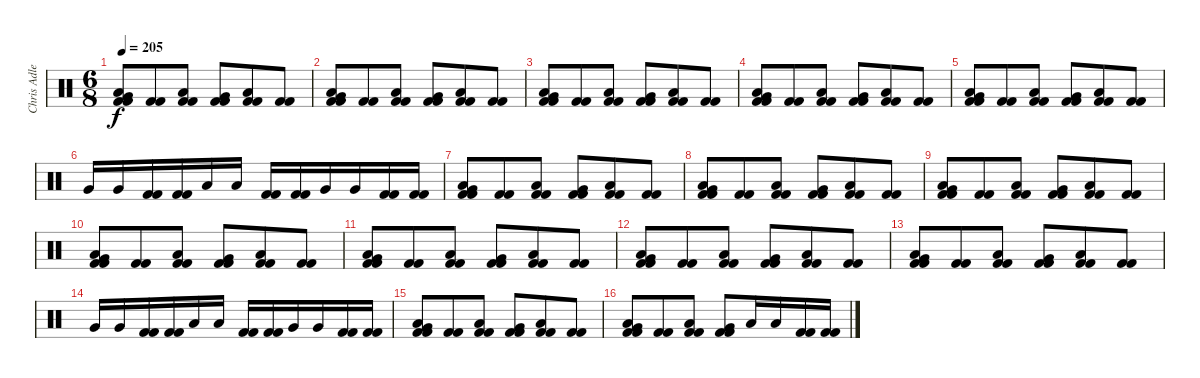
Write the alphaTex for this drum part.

\track ("Chris Adler" "Chris Adle") {instrument percussion}
\staff {score}
\articulation defaults
\ts (6 8)
\tempo 205
\clef neutral
\ks c
("Very Low Tom (hit)" "Low Floor Tom (hit)" "Kick (hit) 2" "Kick (hit) 2").8{dy f} ("Kick (hit) 2" "Kick (hit) 2").8 ("Low Floor Tom (hit)" "Kick (hit) 2" "Kick (hit) 2").8 ("Very Low Tom (hit)" "Kick (hit) 2" "Kick (hit) 2").8 ("Low Floor Tom (hit)" "Kick (hit) 2" "Kick (hit) 2").8 ("Kick (hit) 2" "Kick (hit) 2").8 |
("Very Low Tom (hit)" "Low Floor Tom (hit)" "Kick (hit) 2" "Kick (hit) 2").8 ("Kick (hit) 2" "Kick (hit) 2").8 ("Low Floor Tom (hit)" "Kick (hit) 2" "Kick (hit) 2").8 ("Very Low Tom (hit)" "Kick (hit) 2" "Kick (hit) 2").8 ("Low Floor Tom (hit)" "Kick (hit) 2" "Kick (hit) 2").8 ("Kick (hit) 2" "Kick (hit) 2").8 |
("Very Low Tom (hit)" "Low Floor Tom (hit)" "Kick (hit) 2" "Kick (hit) 2").8 ("Kick (hit) 2" "Kick (hit) 2").8 ("Low Floor Tom (hit)" "Kick (hit) 2" "Kick (hit) 2").8 ("Very Low Tom (hit)" "Kick (hit) 2" "Kick (hit) 2").8 ("Low Floor Tom (hit)" "Kick (hit) 2" "Kick (hit) 2").8 ("Kick (hit) 2" "Kick (hit) 2").8 |
("Very Low Tom (hit)" "Low Floor Tom (hit)" "Kick (hit) 2" "Kick (hit) 2").8 ("Kick (hit) 2" "Kick (hit) 2").8 ("Low Floor Tom (hit)" "Kick (hit) 2" "Kick (hit) 2").8 ("Very Low Tom (hit)" "Kick (hit) 2" "Kick (hit) 2").8 ("Low Floor Tom (hit)" "Kick (hit) 2" "Kick (hit) 2").8 ("Kick (hit) 2" "Kick (hit) 2").8 |
("Very Low Tom (hit)" "Low Floor Tom (hit)" "Kick (hit) 2" "Kick (hit) 2").8 ("Kick (hit) 2" "Kick (hit) 2").8 ("Low Floor Tom (hit)" "Kick (hit) 2" "Kick (hit) 2").8 ("Very Low Tom (hit)" "Kick (hit) 2" "Kick (hit) 2").8 ("Low Floor Tom (hit)" "Kick (hit) 2" "Kick (hit) 2").8 ("Kick (hit) 2" "Kick (hit) 2").8 |
"Very Low Tom (hit)".16 "Very Low Tom (hit)".16 ("Kick (hit) 2" "Kick (hit) 2").16 ("Kick (hit) 2" "Kick (hit) 2").16 "Low Floor Tom (hit)".16 "Low Floor Tom (hit)".16 ("Kick (hit) 2" "Kick (hit) 2").16 ("Kick (hit) 2" "Kick (hit) 2").16 "Very Low Tom (hit)".16 "Very Low Tom (hit)".16 ("Kick (hit) 2" "Kick (hit) 2").16 ("Kick (hit) 2" "Kick (hit) 2").16 |
("Very Low Tom (hit)" "Low Floor Tom (hit)" "Kick (hit) 2" "Kick (hit) 2").8 ("Kick (hit) 2" "Kick (hit) 2").8 ("Low Floor Tom (hit)" "Kick (hit) 2" "Kick (hit) 2").8 ("Very Low Tom (hit)" "Kick (hit) 2" "Kick (hit) 2").8 ("Low Floor Tom (hit)" "Kick (hit) 2" "Kick (hit) 2").8 ("Kick (hit) 2" "Kick (hit) 2").8 |
("Very Low Tom (hit)" "Low Floor Tom (hit)" "Kick (hit) 2" "Kick (hit) 2").8 ("Kick (hit) 2" "Kick (hit) 2").8 ("Low Floor Tom (hit)" "Kick (hit) 2" "Kick (hit) 2").8 ("Very Low Tom (hit)" "Kick (hit) 2" "Kick (hit) 2").8 ("Low Floor Tom (hit)" "Kick (hit) 2" "Kick (hit) 2").8 ("Kick (hit) 2" "Kick (hit) 2").8 |
("Very Low Tom (hit)" "Low Floor Tom (hit)" "Kick (hit) 2" "Kick (hit) 2").8 ("Kick (hit) 2" "Kick (hit) 2").8 ("Low Floor Tom (hit)" "Kick (hit) 2" "Kick (hit) 2").8 ("Very Low Tom (hit)" "Kick (hit) 2" "Kick (hit) 2").8 ("Low Floor Tom (hit)" "Kick (hit) 2" "Kick (hit) 2").8 ("Kick (hit) 2" "Kick (hit) 2").8 |
("Very Low Tom (hit)" "Low Floor Tom (hit)" "Kick (hit) 2" "Kick (hit) 2").8 ("Kick (hit) 2" "Kick (hit) 2").8 ("Low Floor Tom (hit)" "Kick (hit) 2" "Kick (hit) 2").8 ("Very Low Tom (hit)" "Kick (hit) 2" "Kick (hit) 2").8 ("Low Floor Tom (hit)" "Kick (hit) 2" "Kick (hit) 2").8 ("Kick (hit) 2" "Kick (hit) 2").8 |
("Very Low Tom (hit)" "Low Floor Tom (hit)" "Kick (hit) 2" "Kick (hit) 2").8 ("Kick (hit) 2" "Kick (hit) 2").8 ("Low Floor Tom (hit)" "Kick (hit) 2" "Kick (hit) 2").8 ("Very Low Tom (hit)" "Kick (hit) 2" "Kick (hit) 2").8 ("Low Floor Tom (hit)" "Kick (hit) 2" "Kick (hit) 2").8 ("Kick (hit) 2" "Kick (hit) 2").8 |
("Very Low Tom (hit)" "Low Floor Tom (hit)" "Kick (hit) 2" "Kick (hit) 2").8 ("Kick (hit) 2" "Kick (hit) 2").8 ("Low Floor Tom (hit)" "Kick (hit) 2" "Kick (hit) 2").8 ("Very Low Tom (hit)" "Kick (hit) 2" "Kick (hit) 2").8 ("Low Floor Tom (hit)" "Kick (hit) 2" "Kick (hit) 2").8 ("Kick (hit) 2" "Kick (hit) 2").8 |
("Very Low Tom (hit)" "Low Floor Tom (hit)" "Kick (hit) 2" "Kick (hit) 2").8 ("Kick (hit) 2" "Kick (hit) 2").8 ("Low Floor Tom (hit)" "Kick (hit) 2" "Kick (hit) 2").8 ("Very Low Tom (hit)" "Kick (hit) 2" "Kick (hit) 2").8 ("Low Floor Tom (hit)" "Kick (hit) 2" "Kick (hit) 2").8 ("Kick (hit) 2" "Kick (hit) 2").8 |
"Very Low Tom (hit)".16 "Very Low Tom (hit)".16 ("Kick (hit) 2" "Kick (hit) 2").16 ("Kick (hit) 2" "Kick (hit) 2").16 "Low Floor Tom (hit)".16 "Low Floor Tom (hit)".16 ("Kick (hit) 2" "Kick (hit) 2").16 ("Kick (hit) 2" "Kick (hit) 2").16 "Very Low Tom (hit)".16 "Very Low Tom (hit)".16 ("Kick (hit) 2" "Kick (hit) 2").16 ("Kick (hit) 2" "Kick (hit) 2").16 |
("Very Low Tom (hit)" "Low Floor Tom (hit)" "Kick (hit) 2" "Kick (hit) 2").8 ("Kick (hit) 2" "Kick (hit) 2").8 ("Low Floor Tom (hit)" "Kick (hit) 2" "Kick (hit) 2").8 ("Very Low Tom (hit)" "Kick (hit) 2" "Kick (hit) 2").8 ("Low Floor Tom (hit)" "Kick (hit) 2" "Kick (hit) 2").8 ("Kick (hit) 2" "Kick (hit) 2").8 |
("Very Low Tom (hit)" "Low Floor Tom (hit)" "Kick (hit) 2" "Kick (hit) 2").8 ("Kick (hit) 2" "Kick (hit) 2").8 ("Low Floor Tom (hit)" "Kick (hit) 2" "Kick (hit) 2").8 ("Very Low Tom (hit)" "Kick (hit) 2" "Kick (hit) 2").8 "Low Floor Tom (hit)".16 "Low Floor Tom (hit)".16 ("Kick (hit) 2" "Kick (hit) 2").16 ("Kick (hit) 2" "Kick (hit) 2").16
